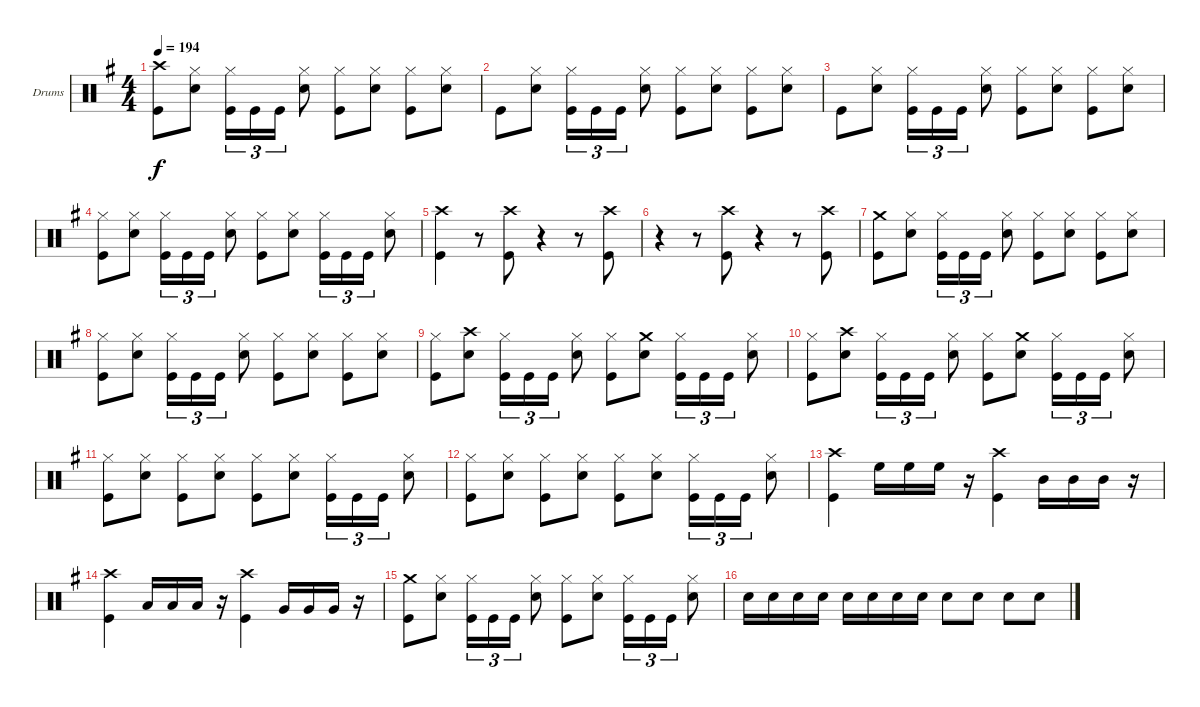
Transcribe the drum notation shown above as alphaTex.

\bracketExtendMode groupsimilarinstruments
\firstSystemTrackNameOrientation horizontal
\otherSystemsTrackNameOrientation horizontal
\track ("Drumkit" "Drums") {instrument percussion}
\staff {score}
\articulation defaults
\ts (4 4)
\tempo 194
\clef neutral
\scale
1.04288
\ks g
("Crash high (hit)" "Kick (hit)").8{dy f} ("Hi-Hat (closed)" "Snare (hit) 2").8 ("Hi-Hat (closed)" "Kick (hit)").16{tu (3 2)} "Kick (hit)".16{tu (3 2)} "Kick (hit)".16{tu (3 2)} ("Hi-Hat (closed)" "Snare (hit) 2").8 ("Hi-Hat (closed)" "Kick (hit)").8 ("Hi-Hat (closed)" "Snare (hit) 2").8 ("Hi-Hat (closed)" "Kick (hit)").8 ("Hi-Hat (closed)" "Snare (hit) 2").8 |
\scale
0.957125 "Kick (hit)".8 ("Hi-Hat (closed)" "Snare (hit) 2").8 ("Hi-Hat (closed)" "Kick (hit)").16{tu (3 2)} "Kick (hit)".16{tu (3 2)} "Kick (hit)".16{tu (3 2)} ("Hi-Hat (closed)" "Snare (hit) 2").8 ("Hi-Hat (closed)" "Kick (hit)").8 ("Hi-Hat (closed)" "Snare (hit) 2").8 ("Hi-Hat (closed)" "Kick (hit)").8 ("Hi-Hat (closed)" "Snare (hit) 2").8 |
\scale
1.04288 "Kick (hit)".8 ("Hi-Hat (closed)" "Snare (hit) 2").8 ("Hi-Hat (closed)" "Kick (hit)").16{tu (3 2)} "Kick (hit)".16{tu (3 2)} "Kick (hit)".16{tu (3 2)} ("Hi-Hat (closed)" "Snare (hit) 2").8 ("Hi-Hat (closed)" "Kick (hit)").8 ("Hi-Hat (closed)" "Snare (hit) 2").8 ("Hi-Hat (closed)" "Kick (hit)").8 ("Hi-Hat (closed)" "Snare (hit) 2").8 |
\scale
0.957125 ("Hi-Hat (closed)" "Kick (hit)").8 ("Hi-Hat (closed)" "Snare (hit) 2").8 ("Hi-Hat (closed)" "Kick (hit)").16{tu (3 2)} "Kick (hit)".16{tu (3 2)} "Kick (hit)".16{tu (3 2)} ("Hi-Hat (closed)" "Snare (hit) 2").8 ("Hi-Hat (closed)" "Kick (hit)").8 ("Hi-Hat (closed)" "Snare (hit) 2").8 ("Hi-Hat (closed)" "Kick (hit)").16{tu (3 2)} "Kick (hit)".16{tu (3 2)} "Kick (hit)".16{tu (3 2)} ("Hi-Hat (closed)" "Snare (hit) 2").8 |
\scale
1.04288 ("Crash high (hit)" "Kick (hit)").4 r.8 ("Crash high (hit)" "Kick (hit)").8 r.4 r.8 ("Crash high (hit)" "Kick (hit)").8 |
\scale
0.957125 r.4 r.8 ("Crash high (hit)" "Kick (hit)").8 r.4 r.8 ("Crash high (hit)" "Kick (hit)").8 |
\scale
1.04288 ("Crash medium (hit)" "Kick (hit)").8 ("Hi-Hat (closed)" "Snare (hit) 2").8 ("Hi-Hat (closed)" "Kick (hit)").16{tu (3 2)} "Kick (hit)".16{tu (3 2)} "Kick (hit)".16{tu (3 2)} ("Hi-Hat (closed)" "Snare (hit) 2").8 ("Hi-Hat (closed)" "Kick (hit)").8 ("Hi-Hat (closed)" "Snare (hit) 2").8 ("Hi-Hat (closed)" "Kick (hit)").8 ("Hi-Hat (closed)" "Snare (hit) 2").8 |
\scale
0.957125 ("Hi-Hat (closed)" "Kick (hit)").8 ("Hi-Hat (closed)" "Snare (hit) 2").8 ("Hi-Hat (closed)" "Kick (hit)").16{tu (3 2)} "Kick (hit)".16{tu (3 2)} "Kick (hit)".16{tu (3 2)} ("Hi-Hat (closed)" "Snare (hit) 2").8 ("Hi-Hat (closed)" "Kick (hit)").8 ("Hi-Hat (closed)" "Snare (hit) 2").8 ("Hi-Hat (closed)" "Kick (hit)").8 ("Hi-Hat (closed)" "Snare (hit) 2").8 |
\scale
1.04288 ("Hi-Hat (closed)" "Kick (hit)").8 ("Crash high (hit)" "Snare (hit) 2").8 ("Hi-Hat (closed)" "Kick (hit)").16{tu (3 2)} "Kick (hit)".16{tu (3 2)} "Kick (hit)".16{tu (3 2)} ("Hi-Hat (closed)" "Snare (hit) 2").8 ("Hi-Hat (closed)" "Kick (hit)").8 ("Crash medium (hit)" "Snare (hit) 2").8 ("Hi-Hat (closed)" "Kick (hit)").16{tu (3 2)} "Kick (hit)".16{tu (3 2)} "Kick (hit)".16{tu (3 2)} ("Hi-Hat (closed)" "Snare (hit) 2").8 |
\scale
0.957125 ("Hi-Hat (closed)" "Kick (hit)").8 ("Crash high (hit)" "Snare (hit) 2").8 ("Hi-Hat (closed)" "Kick (hit)").16{tu (3 2)} "Kick (hit)".16{tu (3 2)} "Kick (hit)".16{tu (3 2)} ("Hi-Hat (closed)" "Snare (hit) 2").8 ("Hi-Hat (closed)" "Kick (hit)").8 ("Crash medium (hit)" "Snare (hit) 2").8 ("Hi-Hat (closed)" "Kick (hit)").16{tu (3 2)} "Kick (hit)".16{tu (3 2)} "Kick (hit)".16{tu (3 2)} ("Hi-Hat (closed)" "Snare (hit) 2").8 |
\scale
1.04288 ("Hi-Hat (closed)" "Kick (hit)").8 ("Hi-Hat (closed)" "Snare (hit) 2").8 ("Hi-Hat (closed)" "Kick (hit)").8 ("Hi-Hat (closed)" "Snare (hit) 2").8 ("Hi-Hat (closed)" "Kick (hit)").8 ("Hi-Hat (closed)" "Snare (hit) 2").8 ("Hi-Hat (closed)" "Kick (hit)").16{tu (3 2)} "Kick (hit)".16{tu (3 2)} "Kick (hit)".16{tu (3 2)} ("Hi-Hat (closed)" "Snare (hit) 2").8 |
\scale
0.957125 ("Hi-Hat (closed)" "Kick (hit)").8 ("Hi-Hat (closed)" "Snare (hit) 2").8 ("Hi-Hat (closed)" "Kick (hit)").8 ("Hi-Hat (closed)" "Snare (hit) 2").8 ("Hi-Hat (closed)" "Kick (hit)").8 ("Hi-Hat (closed)" "Snare (hit) 2").8 ("Hi-Hat (closed)" "Kick (hit)").16{tu (3 2)} "Kick (hit)".16{tu (3 2)} "Kick (hit)".16{tu (3 2)} ("Hi-Hat (closed)" "Snare (hit) 2").8 |
\scale
1.04288 ("Crash high (hit)" "Kick (hit)").4 "High Floor Tom (hit)".16 "High Floor Tom (hit)".16 "High Floor Tom (hit)".16 r.16 ("Crash high (hit)" "Kick (hit)").4 "Mid Tom (hit)".16 "Mid Tom (hit)".16 "Mid Tom (hit)".16 r.16 |
\scale
0.957125 ("Crash high (hit)" "Kick (hit)").4 "Low Tom (hit)".16 "Low Tom (hit)".16 "Low Tom (hit)".16 r.16 ("Crash high (hit)" "Kick (hit)").4 "Very Low Tom (hit)".16 "Very Low Tom (hit)".16 "Very Low Tom (hit)".16 r.16 |
\scale
1.04288 ("Crash medium (hit)" "Kick (hit)").8 ("Hi-Hat (closed)" "Snare (hit) 2").8 ("Hi-Hat (closed)" "Kick (hit)").16{tu (3 2)} "Kick (hit)".16{tu (3 2)} "Kick (hit)".16{tu (3 2)} ("Hi-Hat (closed)" "Snare (hit) 2").8 ("Hi-Hat (closed)" "Kick (hit)").8 ("Hi-Hat (closed)" "Snare (hit) 2").8 ("Hi-Hat (closed)" "Kick (hit)").16{tu (3 2)} "Kick (hit)".16{tu (3 2)} "Kick (hit)".16{tu (3 2)} ("Hi-Hat (closed)" "Snare (hit) 2").8 |
\scale
0.957125 "Snare (hit) 2".16 "Snare (hit) 2".16 "Snare (hit) 2".16 "Snare (hit) 2".16 "Snare (hit) 2".16 "Snare (hit) 2".16 "Snare (hit) 2".16 "Snare (hit) 2".16 "Snare (hit) 2".8 "Snare (hit) 2".8 "Snare (hit) 2".8 "Snare (hit) 2".8
